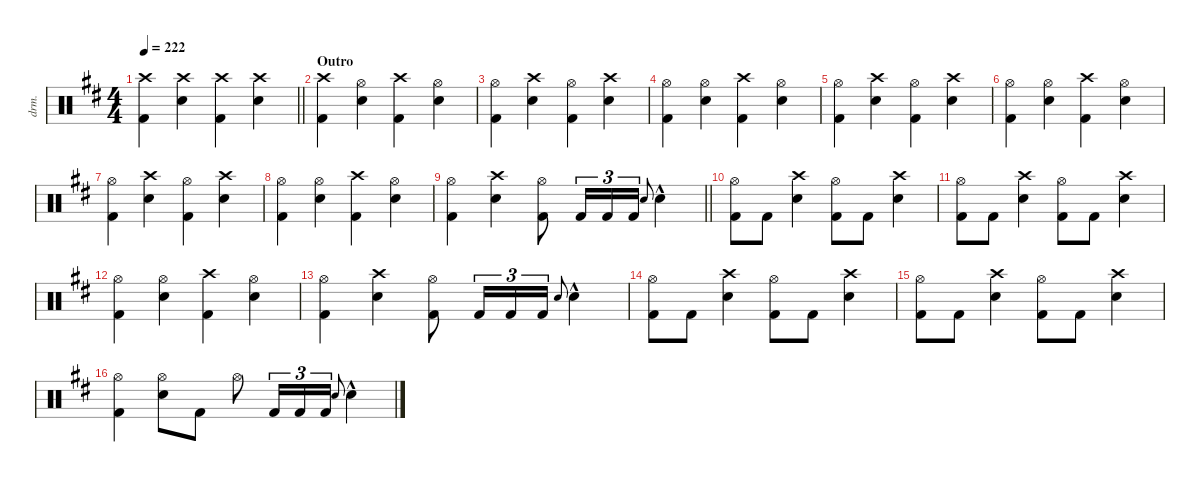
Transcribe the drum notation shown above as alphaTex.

\defaultSystemsLayout 4
\hideDynamics
\bracketExtendMode nobrackets
\otherSystemsTrackNameOrientation horizontal
\track ("Lars Ulrich" "drm.") {defaultSystemsLayout 4 instrument percussion}
\staff {score}
\articulation defaults
\ts (4 4)
\tempo 222
\clef neutral
\barLineRight lightlight
\ks bminor
("Crash high (hit)"{acc forcenatural} "Kick (hit) 2"{acc forcenatural}).4{dy f} ("Crash high (hit)"{acc forcenatural} "Snare (hit) 2"{acc forcenatural}).4 ("Crash high (hit)"{acc forcenatural} "Kick (hit) 2"{acc forcenatural}).4 ("Crash high (hit)"{acc forcenatural} "Snare (hit) 2"{acc forcenatural}).4 |
\section ("" "Outro")
("Crash high (hit)"{acc forcenatural} "Kick (hit) 2"{acc forcenatural}).4 ("Hi-Hat (open)"{acc forcenatural} "Snare (hit) 2"{acc forcenatural}).4 ("Crash high (hit)"{acc forcenatural} "Kick (hit) 2"{acc forcenatural}).4 ("Hi-Hat (open)"{acc forcenatural} "Snare (hit) 2"{acc forcenatural}).4 |
("Hi-Hat (open)"{acc forcenatural} "Kick (hit) 2"{acc forcenatural}).4 ("Crash high (hit)"{acc forcenatural} "Snare (hit) 2"{acc forcenatural}).4 ("Hi-Hat (open)"{acc forcenatural} "Kick (hit) 2"{acc forcenatural}).4 ("Crash high (hit)"{acc forcenatural} "Snare (hit) 2"{acc forcenatural}).4 |
("Hi-Hat (open)"{acc forcenatural} "Kick (hit) 2"{acc forcenatural}).4 ("Hi-Hat (open)"{acc forcenatural} "Snare (hit) 2"{acc forcenatural}).4 ("Crash high (hit)"{acc forcenatural} "Kick (hit) 2"{acc forcenatural}).4 ("Hi-Hat (open)"{acc forcenatural} "Snare (hit) 2"{acc forcenatural}).4 |
("Hi-Hat (open)"{acc forcenatural} "Kick (hit) 2"{acc forcenatural}).4 ("Crash high (hit)"{acc forcenatural} "Snare (hit) 2"{acc forcenatural}).4 ("Hi-Hat (open)"{acc forcenatural} "Kick (hit) 2"{acc forcenatural}).4 ("Crash high (hit)"{acc forcenatural} "Snare (hit) 2"{acc forcenatural}).4 |
("Hi-Hat (open)"{acc forcenatural} "Kick (hit) 2"{acc forcenatural}).4 ("Hi-Hat (open)"{acc forcenatural} "Snare (hit) 2"{acc forcenatural}).4 ("Crash high (hit)"{acc forcenatural} "Kick (hit) 2"{acc forcenatural}).4 ("Hi-Hat (open)"{acc forcenatural} "Snare (hit) 2"{acc forcenatural}).4 |
("Hi-Hat (open)"{acc forcenatural} "Kick (hit) 2"{acc forcenatural}).4 ("Crash high (hit)"{acc forcenatural} "Snare (hit) 2"{acc forcenatural}).4 ("Hi-Hat (open)"{acc forcenatural} "Kick (hit) 2"{acc forcenatural}).4 ("Crash high (hit)"{acc forcenatural} "Snare (hit) 2"{acc forcenatural}).4 |
("Hi-Hat (open)"{acc forcenatural} "Kick (hit) 2"{acc forcenatural}).4 ("Hi-Hat (open)"{acc forcenatural} "Snare (hit) 2"{acc forcenatural}).4 ("Crash high (hit)"{acc forcenatural} "Kick (hit) 2"{acc forcenatural}).4 ("Hi-Hat (open)"{acc forcenatural} "Snare (hit) 2"{acc forcenatural}).4 |
\barLineRight lightlight
("Hi-Hat (open)"{acc forcenatural} "Kick (hit) 2"{acc forcenatural}).4 ("Crash high (hit)"{acc forcenatural} "Snare (hit) 2"{acc forcenatural}).4 ("Hi-Hat (open)"{acc forcenatural} "Kick (hit) 2"{acc forcenatural}).8 "Kick (hit) 2"{acc forcenatural}.16{tu (3 2)} "Kick (hit) 2"{acc forcenatural}.16{tu (3 2)} "Kick (hit) 2"{acc forcenatural}.16{tu (3 2)} "Electric Snare (hit)"{acc forcenatural}.8{gr onbeat dy mp} "Snare (hit) 2"{hac acc forcenatural}.4{dy f} |
("Hi-Hat (open)"{acc forcenatural} "Kick (hit) 2"{acc forcenatural}).8 "Kick (hit) 2"{acc forcenatural}.8 ("Crash high (hit)"{acc forcenatural} "Snare (hit) 2"{acc forcenatural}).4 ("Hi-Hat (open)"{acc forcenatural} "Kick (hit) 2"{acc forcenatural}).8 "Kick (hit) 2"{acc forcenatural}.8 ("Crash high (hit)"{acc forcenatural} "Snare (hit) 2"{acc forcenatural}).4 |
("Hi-Hat (open)"{acc forcenatural} "Kick (hit) 2"{acc forcenatural}).8 "Kick (hit) 2"{acc forcenatural}.8 ("Crash high (hit)"{acc forcenatural} "Snare (hit) 2"{acc forcenatural}).4 ("Hi-Hat (open)"{acc forcenatural} "Kick (hit) 2"{acc forcenatural}).8 "Kick (hit) 2"{acc forcenatural}.8 ("Crash high (hit)"{acc forcenatural} "Snare (hit) 2"{acc forcenatural}).4 |
("Hi-Hat (open)"{acc forcenatural} "Kick (hit) 2"{acc forcenatural}).4 ("Hi-Hat (open)"{acc forcenatural} "Snare (hit) 2"{acc forcenatural}).4 ("Crash high (hit)"{acc forcenatural} "Kick (hit) 2"{acc forcenatural}).4 ("Hi-Hat (open)"{acc forcenatural} "Snare (hit) 2"{acc forcenatural}).4 |
("Hi-Hat (open)"{acc forcenatural} "Kick (hit) 2"{acc forcenatural}).4 ("Crash high (hit)"{acc forcenatural} "Snare (hit) 2"{acc forcenatural}).4 ("Hi-Hat (open)"{acc forcenatural} "Kick (hit) 2"{acc forcenatural}).8 "Kick (hit) 2"{acc forcenatural}.16{tu (3 2)} "Kick (hit) 2"{acc forcenatural}.16{tu (3 2)} "Kick (hit) 2"{acc forcenatural}.16{tu (3 2)} "Electric Snare (hit)"{acc forcenatural}.8{gr onbeat dy mp} "Snare (hit) 2"{hac acc forcenatural}.4{dy f} |
("Hi-Hat (open)"{acc forcenatural} "Kick (hit) 2"{acc forcenatural}).8 "Kick (hit) 2"{acc forcenatural}.8 ("Crash high (hit)"{acc forcenatural} "Snare (hit) 2"{acc forcenatural}).4 ("Hi-Hat (open)"{acc forcenatural} "Kick (hit) 2"{acc forcenatural}).8 "Kick (hit) 2"{acc forcenatural}.8 ("Crash high (hit)"{acc forcenatural} "Snare (hit) 2"{acc forcenatural}).4 |
("Hi-Hat (open)"{acc forcenatural} "Kick (hit) 2"{acc forcenatural}).8 "Kick (hit) 2"{acc forcenatural}.8 ("Crash high (hit)"{acc forcenatural} "Snare (hit) 2"{acc forcenatural}).4 ("Hi-Hat (open)"{acc forcenatural} "Kick (hit) 2"{acc forcenatural}).8 "Kick (hit) 2"{acc forcenatural}.8 ("Crash high (hit)"{acc forcenatural} "Snare (hit) 2"{acc forcenatural}).4 |
("Hi-Hat (open)"{acc forcenatural} "Kick (hit) 2"{acc forcenatural}).4 ("Hi-Hat (open)"{acc forcenatural} "Snare (hit) 2"{acc forcenatural}).8 "Kick (hit) 2"{acc forcenatural}.8 "Hi-Hat (open)"{acc forcenatural}.8 "Kick (hit) 2"{acc forcenatural}.16{tu (3 2)} "Kick (hit) 2"{acc forcenatural}.16{tu (3 2)} "Kick (hit) 2"{acc forcenatural}.16{tu (3 2)} "Electric Snare (hit)"{acc forcenatural}.8{gr onbeat dy mp} "Snare (hit) 2"{hac acc forcenatural}.4{dy f}
